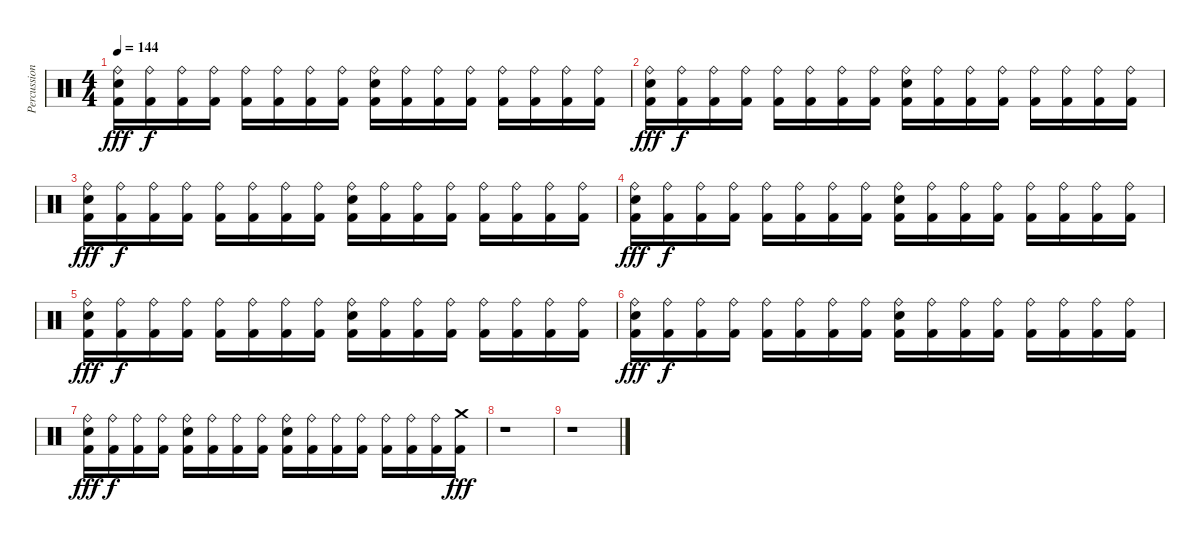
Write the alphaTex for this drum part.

\track ("Percussion -  Bard Faust" "Percussion") {instrument percussion}
\staff {score}
\articulation defaults
\ts (4 4)
\tempo 144
\clef neutral
\ks c
("Ride (bell)" "Electric Snare (hit)" "Kick (hit) 2").16{dy fff} ("Ride (bell)" "Kick (hit) 2").16{dy f} ("Ride (bell)" "Kick (hit) 2").16 ("Ride (bell)" "Kick (hit) 2").16 ("Ride (bell)" "Kick (hit) 2").16 ("Ride (bell)" "Kick (hit) 2").16 ("Ride (bell)" "Kick (hit) 2").16 ("Ride (bell)" "Kick (hit) 2").16 ("Ride (bell)" "Electric Snare (hit)" "Kick (hit) 2").16 ("Ride (bell)" "Kick (hit) 2").16 ("Ride (bell)" "Kick (hit) 2").16 ("Ride (bell)" "Kick (hit) 2").16 ("Ride (bell)" "Kick (hit) 2").16 ("Ride (bell)" "Kick (hit) 2").16 ("Ride (bell)" "Kick (hit) 2").16 ("Ride (bell)" "Kick (hit) 2").16 |
("Ride (bell)" "Electric Snare (hit)" "Kick (hit) 2").16{dy fff} ("Ride (bell)" "Kick (hit) 2").16{dy f} ("Ride (bell)" "Kick (hit) 2").16 ("Ride (bell)" "Kick (hit) 2").16 ("Ride (bell)" "Kick (hit) 2").16 ("Ride (bell)" "Kick (hit) 2").16 ("Ride (bell)" "Kick (hit) 2").16 ("Ride (bell)" "Kick (hit) 2").16 ("Ride (bell)" "Electric Snare (hit)" "Kick (hit) 2").16 ("Ride (bell)" "Kick (hit) 2").16 ("Ride (bell)" "Kick (hit) 2").16 ("Ride (bell)" "Kick (hit) 2").16 ("Ride (bell)" "Kick (hit) 2").16 ("Ride (bell)" "Kick (hit) 2").16 ("Ride (bell)" "Kick (hit) 2").16 ("Ride (bell)" "Kick (hit) 2").16 |
("Ride (bell)" "Electric Snare (hit)" "Kick (hit) 2").16{dy fff} ("Ride (bell)" "Kick (hit) 2").16{dy f} ("Ride (bell)" "Kick (hit) 2").16 ("Ride (bell)" "Kick (hit) 2").16 ("Ride (bell)" "Kick (hit) 2").16 ("Ride (bell)" "Kick (hit) 2").16 ("Ride (bell)" "Kick (hit) 2").16 ("Ride (bell)" "Kick (hit) 2").16 ("Ride (bell)" "Electric Snare (hit)" "Kick (hit) 2").16 ("Ride (bell)" "Kick (hit) 2").16 ("Ride (bell)" "Kick (hit) 2").16 ("Ride (bell)" "Kick (hit) 2").16 ("Ride (bell)" "Kick (hit) 2").16 ("Ride (bell)" "Kick (hit) 2").16 ("Ride (bell)" "Kick (hit) 2").16 ("Ride (bell)" "Kick (hit) 2").16 |
("Ride (bell)" "Electric Snare (hit)" "Kick (hit) 2").16{dy fff} ("Ride (bell)" "Kick (hit) 2").16{dy f} ("Ride (bell)" "Kick (hit) 2").16 ("Ride (bell)" "Kick (hit) 2").16 ("Ride (bell)" "Kick (hit) 2").16 ("Ride (bell)" "Kick (hit) 2").16 ("Ride (bell)" "Kick (hit) 2").16 ("Ride (bell)" "Kick (hit) 2").16 ("Ride (bell)" "Electric Snare (hit)" "Kick (hit) 2").16 ("Ride (bell)" "Kick (hit) 2").16 ("Ride (bell)" "Kick (hit) 2").16 ("Ride (bell)" "Kick (hit) 2").16 ("Ride (bell)" "Kick (hit) 2").16 ("Ride (bell)" "Kick (hit) 2").16 ("Ride (bell)" "Kick (hit) 2").16 ("Ride (bell)" "Kick (hit) 2").16 |
("Ride (bell)" "Electric Snare (hit)" "Kick (hit) 2").16{dy fff} ("Ride (bell)" "Kick (hit) 2").16{dy f} ("Ride (bell)" "Kick (hit) 2").16 ("Ride (bell)" "Kick (hit) 2").16 ("Ride (bell)" "Kick (hit) 2").16 ("Ride (bell)" "Kick (hit) 2").16 ("Ride (bell)" "Kick (hit) 2").16 ("Ride (bell)" "Kick (hit) 2").16 ("Ride (bell)" "Electric Snare (hit)" "Kick (hit) 2").16 ("Ride (bell)" "Kick (hit) 2").16 ("Ride (bell)" "Kick (hit) 2").16 ("Ride (bell)" "Kick (hit) 2").16 ("Ride (bell)" "Kick (hit) 2").16 ("Ride (bell)" "Kick (hit) 2").16 ("Ride (bell)" "Kick (hit) 2").16 ("Ride (bell)" "Kick (hit) 2").16 |
("Ride (bell)" "Electric Snare (hit)" "Kick (hit) 2").16{dy fff} ("Ride (bell)" "Kick (hit) 2").16{dy f} ("Ride (bell)" "Kick (hit) 2").16 ("Ride (bell)" "Kick (hit) 2").16 ("Ride (bell)" "Kick (hit) 2").16 ("Ride (bell)" "Kick (hit) 2").16 ("Ride (bell)" "Kick (hit) 2").16 ("Ride (bell)" "Kick (hit) 2").16 ("Ride (bell)" "Electric Snare (hit)" "Kick (hit) 2").16 ("Ride (bell)" "Kick (hit) 2").16 ("Ride (bell)" "Kick (hit) 2").16 ("Ride (bell)" "Kick (hit) 2").16 ("Ride (bell)" "Kick (hit) 2").16 ("Ride (bell)" "Kick (hit) 2").16 ("Ride (bell)" "Kick (hit) 2").16 ("Ride (bell)" "Kick (hit) 2").16 |
("Ride (bell)" "Electric Snare (hit)" "Kick (hit) 2").16{dy fff} ("Ride (bell)" "Kick (hit) 2").16{dy f} ("Ride (bell)" "Kick (hit) 2").16 ("Ride (bell)" "Kick (hit) 2").16 ("Ride (bell)" "Electric Snare (hit)" "Kick (hit) 2").16 ("Ride (bell)" "Kick (hit) 2").16 ("Ride (bell)" "Kick (hit) 2").16 ("Ride (bell)" "Kick (hit) 2").16 ("Ride (bell)" "Electric Snare (hit)" "Kick (hit) 2").16 ("Ride (bell)" "Kick (hit) 2").16 ("Ride (bell)" "Kick (hit) 2").16 ("Ride (bell)" "Kick (hit) 2").16 ("Ride (bell)" "Kick (hit) 2").16 ("Ride (bell)" "Kick (hit) 2").16 ("Ride (bell)" "Kick (hit) 2").16 ("Crash medium (hit)" "Kick (hit) 2").16{dy fff} |
r.1 |
r.1
